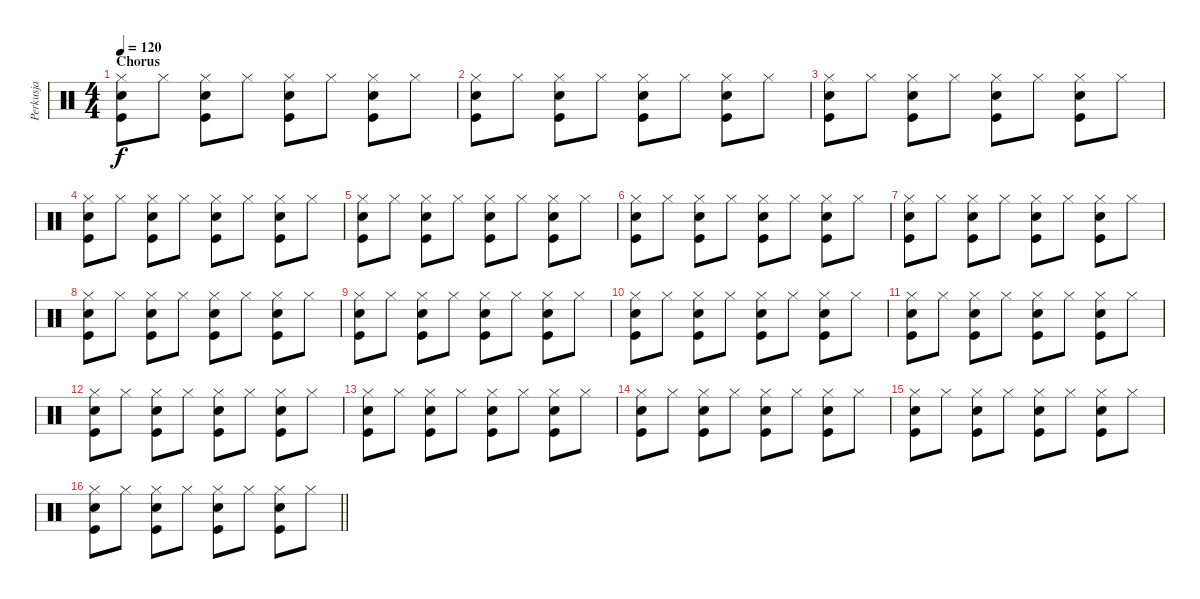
\track ("Perkusja" "Perkusja") {instrument percussion}
\staff {score}
\articulation defaults
\ts (4 4)
\section ("" "Chorus")
\tempo 120
\clef neutral
\ks c
("Snare (hit) 2" "Kick (hit)" "Hi-Hat (closed)").8{dy f} "Hi-Hat (closed)".8 ("Kick (hit)" "Snare (hit) 2" "Hi-Hat (closed)").8 "Hi-Hat (closed)".8 ("Snare (hit) 2" "Kick (hit)" "Hi-Hat (closed)").8 "Hi-Hat (closed)".8 ("Kick (hit)" "Snare (hit) 2" "Hi-Hat (closed)").8 "Hi-Hat (closed)".8 |
("Snare (hit) 2" "Kick (hit)" "Hi-Hat (closed)").8 "Hi-Hat (closed)".8 ("Kick (hit)" "Snare (hit) 2" "Hi-Hat (closed)").8 "Hi-Hat (closed)".8 ("Snare (hit) 2" "Kick (hit)" "Hi-Hat (closed)").8 "Hi-Hat (closed)".8 ("Kick (hit)" "Snare (hit) 2" "Hi-Hat (closed)").8 "Hi-Hat (closed)".8 |
("Snare (hit) 2" "Kick (hit)" "Hi-Hat (closed)").8 "Hi-Hat (closed)".8 ("Kick (hit)" "Snare (hit) 2" "Hi-Hat (closed)").8 "Hi-Hat (closed)".8 ("Snare (hit) 2" "Kick (hit)" "Hi-Hat (closed)").8 "Hi-Hat (closed)".8 ("Kick (hit)" "Snare (hit) 2" "Hi-Hat (closed)").8 "Hi-Hat (closed)".8 |
("Snare (hit) 2" "Kick (hit)" "Hi-Hat (closed)").8 "Hi-Hat (closed)".8 ("Kick (hit)" "Snare (hit) 2" "Hi-Hat (closed)").8 "Hi-Hat (closed)".8 ("Snare (hit) 2" "Kick (hit)" "Hi-Hat (closed)").8 "Hi-Hat (closed)".8 ("Kick (hit)" "Snare (hit) 2" "Hi-Hat (closed)").8 "Hi-Hat (closed)".8 |
("Snare (hit) 2" "Kick (hit)" "Hi-Hat (closed)").8 "Hi-Hat (closed)".8 ("Kick (hit)" "Snare (hit) 2" "Hi-Hat (closed)").8 "Hi-Hat (closed)".8 ("Snare (hit) 2" "Kick (hit)" "Hi-Hat (closed)").8 "Hi-Hat (closed)".8 ("Kick (hit)" "Snare (hit) 2" "Hi-Hat (closed)").8 "Hi-Hat (closed)".8 |
("Snare (hit) 2" "Kick (hit)" "Hi-Hat (closed)").8 "Hi-Hat (closed)".8 ("Kick (hit)" "Snare (hit) 2" "Hi-Hat (closed)").8 "Hi-Hat (closed)".8 ("Snare (hit) 2" "Kick (hit)" "Hi-Hat (closed)").8 "Hi-Hat (closed)".8 ("Kick (hit)" "Snare (hit) 2" "Hi-Hat (closed)").8 "Hi-Hat (closed)".8 |
("Snare (hit) 2" "Kick (hit)" "Hi-Hat (closed)").8 "Hi-Hat (closed)".8 ("Kick (hit)" "Snare (hit) 2" "Hi-Hat (closed)").8 "Hi-Hat (closed)".8 ("Snare (hit) 2" "Kick (hit)" "Hi-Hat (closed)").8 "Hi-Hat (closed)".8 ("Kick (hit)" "Snare (hit) 2" "Hi-Hat (closed)").8 "Hi-Hat (closed)".8 |
("Snare (hit) 2" "Kick (hit)" "Hi-Hat (closed)").8 "Hi-Hat (closed)".8 ("Kick (hit)" "Snare (hit) 2" "Hi-Hat (closed)").8 "Hi-Hat (closed)".8 ("Snare (hit) 2" "Kick (hit)" "Hi-Hat (closed)").8 "Hi-Hat (closed)".8 ("Kick (hit)" "Snare (hit) 2" "Hi-Hat (closed)").8 "Hi-Hat (closed)".8 |
("Snare (hit) 2" "Kick (hit)" "Hi-Hat (closed)").8 "Hi-Hat (closed)".8 ("Kick (hit)" "Snare (hit) 2" "Hi-Hat (closed)").8 "Hi-Hat (closed)".8 ("Snare (hit) 2" "Kick (hit)" "Hi-Hat (closed)").8 "Hi-Hat (closed)".8 ("Kick (hit)" "Snare (hit) 2" "Hi-Hat (closed)").8 "Hi-Hat (closed)".8 |
("Snare (hit) 2" "Kick (hit)" "Hi-Hat (closed)").8 "Hi-Hat (closed)".8 ("Kick (hit)" "Snare (hit) 2" "Hi-Hat (closed)").8 "Hi-Hat (closed)".8 ("Snare (hit) 2" "Kick (hit)" "Hi-Hat (closed)").8 "Hi-Hat (closed)".8 ("Kick (hit)" "Snare (hit) 2" "Hi-Hat (closed)").8 "Hi-Hat (closed)".8 |
("Snare (hit) 2" "Kick (hit)" "Hi-Hat (closed)").8 "Hi-Hat (closed)".8 ("Kick (hit)" "Snare (hit) 2" "Hi-Hat (closed)").8 "Hi-Hat (closed)".8 ("Snare (hit) 2" "Kick (hit)" "Hi-Hat (closed)").8 "Hi-Hat (closed)".8 ("Kick (hit)" "Snare (hit) 2" "Hi-Hat (closed)").8 "Hi-Hat (closed)".8 |
("Snare (hit) 2" "Kick (hit)" "Hi-Hat (closed)").8 "Hi-Hat (closed)".8 ("Kick (hit)" "Snare (hit) 2" "Hi-Hat (closed)").8 "Hi-Hat (closed)".8 ("Snare (hit) 2" "Kick (hit)" "Hi-Hat (closed)").8 "Hi-Hat (closed)".8 ("Kick (hit)" "Snare (hit) 2" "Hi-Hat (closed)").8 "Hi-Hat (closed)".8 |
("Snare (hit) 2" "Kick (hit)" "Hi-Hat (closed)").8 "Hi-Hat (closed)".8 ("Kick (hit)" "Snare (hit) 2" "Hi-Hat (closed)").8 "Hi-Hat (closed)".8 ("Snare (hit) 2" "Kick (hit)" "Hi-Hat (closed)").8 "Hi-Hat (closed)".8 ("Kick (hit)" "Snare (hit) 2" "Hi-Hat (closed)").8 "Hi-Hat (closed)".8 |
("Snare (hit) 2" "Kick (hit)" "Hi-Hat (closed)").8 "Hi-Hat (closed)".8 ("Kick (hit)" "Snare (hit) 2" "Hi-Hat (closed)").8 "Hi-Hat (closed)".8 ("Snare (hit) 2" "Kick (hit)" "Hi-Hat (closed)").8 "Hi-Hat (closed)".8 ("Kick (hit)" "Snare (hit) 2" "Hi-Hat (closed)").8 "Hi-Hat (closed)".8 |
("Snare (hit) 2" "Kick (hit)" "Hi-Hat (closed)").8 "Hi-Hat (closed)".8 ("Kick (hit)" "Snare (hit) 2" "Hi-Hat (closed)").8 "Hi-Hat (closed)".8 ("Snare (hit) 2" "Kick (hit)" "Hi-Hat (closed)").8 "Hi-Hat (closed)".8 ("Kick (hit)" "Snare (hit) 2" "Hi-Hat (closed)").8 "Hi-Hat (closed)".8 |
\barLineRight lightlight
("Snare (hit) 2" "Kick (hit)" "Hi-Hat (closed)").8 "Hi-Hat (closed)".8 ("Kick (hit)" "Snare (hit) 2" "Hi-Hat (closed)").8 "Hi-Hat (closed)".8 ("Snare (hit) 2" "Kick (hit)" "Hi-Hat (closed)").8 "Hi-Hat (closed)".8 ("Kick (hit)" "Snare (hit) 2" "Hi-Hat (closed)").8 "Hi-Hat (closed)".8
